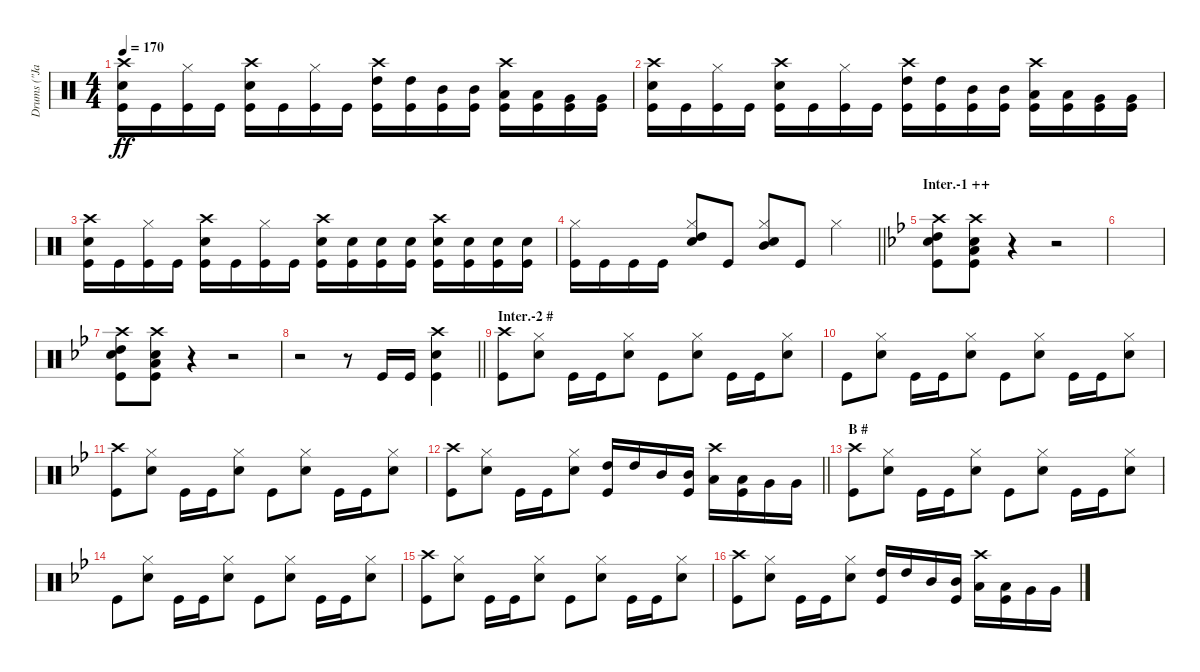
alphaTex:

\track ("Drums (\"Jane\")" "Drums (\"Ja") {instrument percussion}
\staff {score}
\articulation defaults
\ts (4 4)
\tempo 170
\clef neutral
\ks c
("Crash high (hit)" "Snare (hit) 2" "Kick (hit)").16{dy ff} "Kick (hit)".16 ("Hi-Hat (closed)" "Kick (hit)").16 "Kick (hit)".16 ("Crash high (hit)" "Snare (hit) 2" "Kick (hit)").16 "Kick (hit)".16 ("Hi-Hat (closed)" "Kick (hit)").16 "Kick (hit)".16 ("Crash high (hit)" "High Tom (hit)" "Kick (hit)").16 ("High Tom (hit)" "Kick (hit)").16 ("Mid Tom (hit)" "Kick (hit)").16 ("Mid Tom (hit)" "Kick (hit)").16 ("Crash high (hit)" "Low Tom (hit)" "Kick (hit)").16 ("Low Tom (hit)" "Kick (hit)").16 ("Very Low Tom (hit)" "Kick (hit)").16 ("Very Low Tom (hit)" "Kick (hit)").16 |
("Crash high (hit)" "Snare (hit) 2" "Kick (hit)").16 "Kick (hit)".16 ("Hi-Hat (closed)" "Kick (hit)").16 "Kick (hit)".16 ("Crash high (hit)" "Snare (hit) 2" "Kick (hit)").16 "Kick (hit)".16 ("Hi-Hat (closed)" "Kick (hit)").16 "Kick (hit)".16 ("Crash high (hit)" "High Tom (hit)" "Kick (hit)").16 ("High Tom (hit)" "Kick (hit)").16 ("Mid Tom (hit)" "Kick (hit)").16 ("Mid Tom (hit)" "Kick (hit)").16 ("Crash high (hit)" "Low Tom (hit)" "Kick (hit)").16 ("Low Tom (hit)" "Kick (hit)").16 ("Very Low Tom (hit)" "Kick (hit)").16 ("Very Low Tom (hit)" "Kick (hit)").16 |
("Crash high (hit)" "Snare (hit) 2" "Kick (hit)").16 "Kick (hit)".16 ("Hi-Hat (closed)" "Kick (hit)").16 "Kick (hit)".16 ("Crash high (hit)" "Snare (hit) 2" "Kick (hit)").16 "Kick (hit)".16 ("Hi-Hat (closed)" "Kick (hit)").16 "Kick (hit)".16 ("Crash high (hit)" "Snare (hit) 2" "Kick (hit)").16 ("Snare (hit) 2" "Kick (hit)").16 ("Snare (hit) 2" "Kick (hit)").16 ("Snare (hit) 2" "Kick (hit)").16 ("Crash high (hit)" "Snare (hit) 2" "Kick (hit)").16 ("Snare (hit) 2" "Kick (hit)").16 ("Snare (hit) 2" "Kick (hit)").16 ("Snare (hit) 2" "Kick (hit)").16 |
\barLineRight lightlight
("Hi-Hat (closed)" "Kick (hit)").16 "Kick (hit)".16 "Kick (hit)".16 "Kick (hit)".16 ("Hi-Hat (closed)" "Snare (hit) 2" "High Tom (hit)").8 "Kick (hit)".8 ("Hi-Hat (closed)" "Snare (hit) 2" "Mid Tom (hit)").8 "Kick (hit)".8 "Hi-Hat (closed)".4 |
\section ("" "Inter.-1 ++")
\ks bb
("Crash high (hit)" "Snare (hit) 2" "High Tom (hit)" "Kick (hit)").8 ("Crash high (hit)" "Snare (hit) 2" "Low Tom (hit)" "Kick (hit)").8 r.4 r.2 |
|
("Crash high (hit)" "Snare (hit) 2" "High Tom (hit)" "Kick (hit)").8 ("Crash high (hit)" "Snare (hit) 2" "Low Tom (hit)" "Kick (hit)").8 r.4 r.2 |
\barLineRight lightlight
r.2 r.8 "Kick (hit)".16 "Kick (hit)".16 ("Crash high (hit)" "Snare (hit) 2" "Kick (hit)").4 |
\section ("" "Inter.-2 #")
("Crash high (hit)" "Kick (hit)").8 ("Hi-Hat (closed)" "Snare (hit) 2").8 "Kick (hit)".16 "Kick (hit)".16 ("Hi-Hat (closed)" "Snare (hit) 2").8 "Kick (hit)".8 ("Hi-Hat (closed)" "Snare (hit) 2").8 "Kick (hit)".16 "Kick (hit)".16 ("Hi-Hat (closed)" "Snare (hit) 2").8 |
"Kick (hit)".8 ("Hi-Hat (closed)" "Snare (hit) 2").8 "Kick (hit)".16 "Kick (hit)".16 ("Hi-Hat (closed)" "Snare (hit) 2").8 "Kick (hit)".8 ("Hi-Hat (closed)" "Snare (hit) 2").8 "Kick (hit)".16 "Kick (hit)".16 ("Hi-Hat (closed)" "Snare (hit) 2").8 |
("Crash high (hit)" "Kick (hit)").8 ("Hi-Hat (closed)" "Snare (hit) 2").8 "Kick (hit)".16 "Kick (hit)".16 ("Hi-Hat (closed)" "Snare (hit) 2").8 "Kick (hit)".8 ("Hi-Hat (closed)" "Snare (hit) 2").8 "Kick (hit)".16 "Kick (hit)".16 ("Hi-Hat (closed)" "Snare (hit) 2").8 |
\barLineRight lightlight
("Crash high (hit)" "Kick (hit)").8 ("Hi-Hat (closed)" "Snare (hit) 2").8 "Kick (hit)".16 "Kick (hit)".16 ("Hi-Hat (closed)" "Snare (hit) 2").8 ("High Tom (hit)" "Kick (hit)").16 "High Tom (hit)".16 "Mid Tom (hit)".16 ("Mid Tom (hit)" "Kick (hit)").16 ("Crash high (hit)" "Low Tom (hit)").16 ("Low Tom (hit)" "Kick (hit)").16 "Very Low Tom (hit)".16 "Very Low Tom (hit)".16 |
\section ("" "B #")
("Crash high (hit)" "Kick (hit)").8 ("Hi-Hat (closed)" "Snare (hit) 2").8 "Kick (hit)".16 "Kick (hit)".16 ("Hi-Hat (closed)" "Snare (hit) 2").8 "Kick (hit)".8 ("Hi-Hat (closed)" "Snare (hit) 2").8 "Kick (hit)".16 "Kick (hit)".16 ("Hi-Hat (closed)" "Snare (hit) 2").8 |
"Kick (hit)".8 ("Hi-Hat (closed)" "Snare (hit) 2").8 "Kick (hit)".16 "Kick (hit)".16 ("Hi-Hat (closed)" "Snare (hit) 2").8 "Kick (hit)".8 ("Hi-Hat (closed)" "Snare (hit) 2").8 "Kick (hit)".16 "Kick (hit)".16 ("Hi-Hat (closed)" "Snare (hit) 2").8 |
("Crash high (hit)" "Kick (hit)").8 ("Hi-Hat (closed)" "Snare (hit) 2").8 "Kick (hit)".16 "Kick (hit)".16 ("Hi-Hat (closed)" "Snare (hit) 2").8 "Kick (hit)".8 ("Hi-Hat (closed)" "Snare (hit) 2").8 "Kick (hit)".16 "Kick (hit)".16 ("Hi-Hat (closed)" "Snare (hit) 2").8 |
("Crash high (hit)" "Kick (hit)").8 ("Hi-Hat (closed)" "Snare (hit) 2").8 "Kick (hit)".16 "Kick (hit)".16 ("Hi-Hat (closed)" "Snare (hit) 2").8 ("High Tom (hit)" "Kick (hit)").16 "High Tom (hit)".16 "Mid Tom (hit)".16 ("Mid Tom (hit)" "Kick (hit)").16 ("Crash high (hit)" "Low Tom (hit)").16 ("Low Tom (hit)" "Kick (hit)").16 "Very Low Tom (hit)".16 "Very Low Tom (hit)".16
